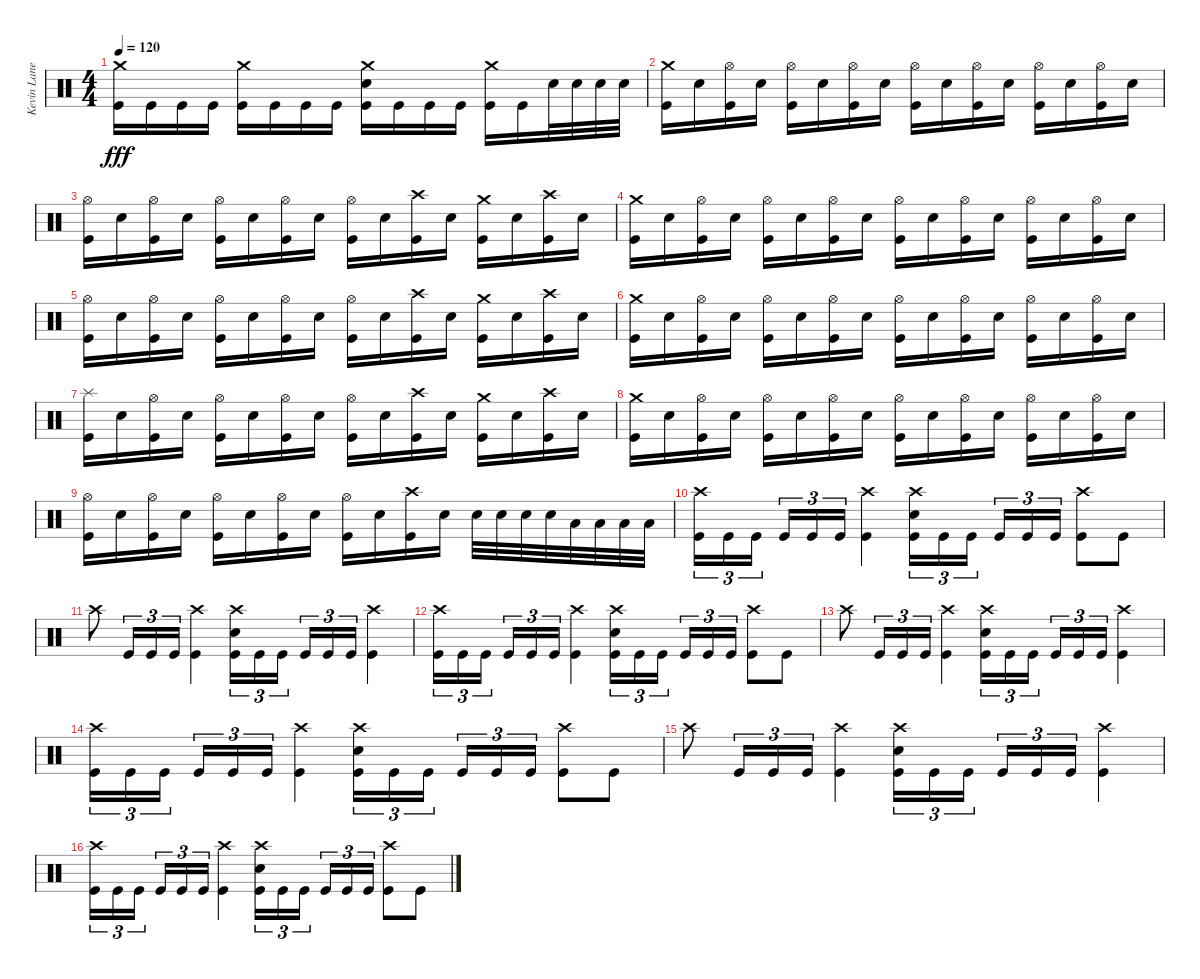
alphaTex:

\track ("Kevin Lane" "Kevin Lane") {instrument percussion}
\staff {score}
\articulation defaults
\ts (4 4)
\tempo 120
\clef neutral
\ks c
("Crash medium (hit)" "Kick (hit)").16{dy fff} "Kick (hit)".16 "Kick (hit)".16 "Kick (hit)".16 ("Crash medium (hit)" "Kick (hit)").16 "Kick (hit)".16 "Kick (hit)".16 "Kick (hit)".16 ("Crash medium (hit)" "Snare (hit) 2" "Kick (hit)").16 "Kick (hit)".16 "Kick (hit)".16 "Kick (hit)".16 ("Crash medium (hit)" "Kick (hit)").16 "Kick (hit)".16 "Snare (hit) 2".32 "Snare (hit) 2".32 "Snare (hit) 2".32 "Snare (hit) 2".32 |
("Crash medium (hit)" "Kick (hit)").16 "Snare (hit) 2".16 ("Hi-Hat (open)" "Kick (hit)").16 "Snare (hit) 2".16 ("Hi-Hat (open)" "Kick (hit)").16 "Snare (hit) 2".16 ("Hi-Hat (open)" "Kick (hit)").16 "Snare (hit) 2".16 ("Hi-Hat (open)" "Kick (hit)").16 "Snare (hit) 2".16 ("Hi-Hat (open)" "Kick (hit)").16 "Snare (hit) 2".16 ("Hi-Hat (open)" "Kick (hit)").16 "Snare (hit) 2".16 ("Hi-Hat (open)" "Kick (hit)").16 "Snare (hit) 2".16 |
("Hi-Hat (open)" "Kick (hit)").16 "Snare (hit) 2".16 ("Hi-Hat (open)" "Kick (hit)").16 "Snare (hit) 2".16 ("Hi-Hat (open)" "Kick (hit)").16 "Snare (hit) 2".16 ("Hi-Hat (open)" "Kick (hit)").16 "Snare (hit) 2".16 ("Hi-Hat (open)" "Kick (hit)").16 "Snare (hit) 2".16 ("Crash high (hit)" "Kick (hit)").16 "Snare (hit) 2".16 ("Crash medium (hit)" "Kick (hit)").16 "Snare (hit) 2".16 ("Crash high (hit)" "Kick (hit)").16 "Snare (hit) 2".16 |
("Crash medium (hit)" "Kick (hit)").16 "Snare (hit) 2".16 ("Hi-Hat (open)" "Kick (hit)").16 "Snare (hit) 2".16 ("Hi-Hat (open)" "Kick (hit)").16 "Snare (hit) 2".16 ("Hi-Hat (open)" "Kick (hit)").16 "Snare (hit) 2".16 ("Hi-Hat (open)" "Kick (hit)").16 "Snare (hit) 2".16 ("Hi-Hat (open)" "Kick (hit)").16 "Snare (hit) 2".16 ("Hi-Hat (open)" "Kick (hit)").16 "Snare (hit) 2".16 ("Hi-Hat (open)" "Kick (hit)").16 "Snare (hit) 2".16 |
("Hi-Hat (open)" "Kick (hit)").16 "Snare (hit) 2".16 ("Hi-Hat (open)" "Kick (hit)").16 "Snare (hit) 2".16 ("Hi-Hat (open)" "Kick (hit)").16 "Snare (hit) 2".16 ("Hi-Hat (open)" "Kick (hit)").16 "Snare (hit) 2".16 ("Hi-Hat (open)" "Kick (hit)").16 "Snare (hit) 2".16 ("Crash high (hit)" "Kick (hit)").16 "Snare (hit) 2".16 ("Crash medium (hit)" "Kick (hit)").16 "Snare (hit) 2".16 ("Crash high (hit)" "Kick (hit)").16 "Snare (hit) 2".16 |
("Crash medium (hit)" "Kick (hit)").16 "Snare (hit) 2".16 ("Hi-Hat (open)" "Kick (hit)").16 "Snare (hit) 2".16 ("Hi-Hat (open)" "Kick (hit)").16 "Snare (hit) 2".16 ("Hi-Hat (open)" "Kick (hit)").16 "Snare (hit) 2".16 ("Hi-Hat (open)" "Kick (hit)").16 "Snare (hit) 2".16 ("Hi-Hat (open)" "Kick (hit)").16 "Snare (hit) 2".16 ("Hi-Hat (open)" "Kick (hit)").16 "Snare (hit) 2".16 ("Hi-Hat (open)" "Kick (hit)").16 "Snare (hit) 2".16 |
("Splash (hit)" "Kick (hit)").16 "Snare (hit) 2".16 ("Hi-Hat (open)" "Kick (hit)").16 "Snare (hit) 2".16 ("Hi-Hat (open)" "Kick (hit)").16 "Snare (hit) 2".16 ("Hi-Hat (open)" "Kick (hit)").16 "Snare (hit) 2".16 ("Hi-Hat (open)" "Kick (hit)").16 "Snare (hit) 2".16 ("Crash high (hit)" "Kick (hit)").16 "Snare (hit) 2".16 ("Crash medium (hit)" "Kick (hit)").16 "Snare (hit) 2".16 ("Crash high (hit)" "Kick (hit)").16 "Snare (hit) 2".16 |
("Crash medium (hit)" "Kick (hit)").16 "Snare (hit) 2".16 ("Hi-Hat (open)" "Kick (hit)").16 "Snare (hit) 2".16 ("Hi-Hat (open)" "Kick (hit)").16 "Snare (hit) 2".16 ("Hi-Hat (open)" "Kick (hit)").16 "Snare (hit) 2".16 ("Hi-Hat (open)" "Kick (hit)").16 "Snare (hit) 2".16 ("Hi-Hat (open)" "Kick (hit)").16 "Snare (hit) 2".16 ("Hi-Hat (open)" "Kick (hit)").16 "Snare (hit) 2".16 ("Hi-Hat (open)" "Kick (hit)").16 "Snare (hit) 2".16 |
("Hi-Hat (open)" "Kick (hit)").16 "Snare (hit) 2".16 ("Hi-Hat (open)" "Kick (hit)").16 "Snare (hit) 2".16 ("Hi-Hat (open)" "Kick (hit)").16 "Snare (hit) 2".16 ("Hi-Hat (open)" "Kick (hit)").16 "Snare (hit) 2".16 ("Hi-Hat (open)" "Kick (hit)").16 "Snare (hit) 2".16 ("Crash high (hit)" "Kick (hit)").16 "Snare (hit) 2".16 "Snare (hit) 2".32 "Snare (hit) 2".32 "Snare (hit) 2".32 "Snare (hit) 2".32 "Low Tom (hit)".32 "Low Tom (hit)".32 "Low Tom (hit)".32 "Low Tom (hit)".32 |
("Crash high (hit)" "Kick (hit)").16{tu (3 2)} "Kick (hit)".16{tu (3 2)} "Kick (hit)".16{tu (3 2) beam splitsecondary} "Kick (hit)".16{tu (3 2)} "Kick (hit)".16{tu (3 2)} "Kick (hit)".16{tu (3 2)} ("Crash high (hit)" "Kick (hit)").4 ("Crash high (hit)" "Snare (hit) 2" "Kick (hit)").16{tu (3 2)} "Kick (hit)".16{tu (3 2)} "Kick (hit)".16{tu (3 2) beam splitsecondary} "Kick (hit)".16{tu (3 2)} "Kick (hit)".16{tu (3 2)} "Kick (hit)".16{tu (3 2)} ("Crash high (hit)" "Kick (hit)").8 "Kick (hit)".8 |
"Crash high (hit)".8 "Kick (hit)".16{tu (3 2)} "Kick (hit)".16{tu (3 2)} "Kick (hit)".16{tu (3 2)} ("Crash high (hit)" "Kick (hit)").4 ("Crash high (hit)" "Snare (hit) 2" "Kick (hit)").16{tu (3 2)} "Kick (hit)".16{tu (3 2)} "Kick (hit)".16{tu (3 2) beam splitsecondary} "Kick (hit)".16{tu (3 2)} "Kick (hit)".16{tu (3 2)} "Kick (hit)".16{tu (3 2)} ("Crash high (hit)" "Kick (hit)").4 |
("Crash high (hit)" "Kick (hit)").16{tu (3 2)} "Kick (hit)".16{tu (3 2)} "Kick (hit)".16{tu (3 2) beam splitsecondary} "Kick (hit)".16{tu (3 2)} "Kick (hit)".16{tu (3 2)} "Kick (hit)".16{tu (3 2)} ("Crash high (hit)" "Kick (hit)").4 ("Crash high (hit)" "Snare (hit) 2" "Kick (hit)").16{tu (3 2)} "Kick (hit)".16{tu (3 2)} "Kick (hit)".16{tu (3 2) beam splitsecondary} "Kick (hit)".16{tu (3 2)} "Kick (hit)".16{tu (3 2)} "Kick (hit)".16{tu (3 2)} ("Crash high (hit)" "Kick (hit)").8 "Kick (hit)".8 |
"Crash high (hit)".8 "Kick (hit)".16{tu (3 2)} "Kick (hit)".16{tu (3 2)} "Kick (hit)".16{tu (3 2)} ("Crash high (hit)" "Kick (hit)").4 ("Crash high (hit)" "Snare (hit) 2" "Kick (hit)").16{tu (3 2)} "Kick (hit)".16{tu (3 2)} "Kick (hit)".16{tu (3 2) beam splitsecondary} "Kick (hit)".16{tu (3 2)} "Kick (hit)".16{tu (3 2)} "Kick (hit)".16{tu (3 2)} ("Crash high (hit)" "Kick (hit)").4 |
("Crash high (hit)" "Kick (hit)").16{tu (3 2)} "Kick (hit)".16{tu (3 2)} "Kick (hit)".16{tu (3 2) beam splitsecondary} "Kick (hit)".16{tu (3 2)} "Kick (hit)".16{tu (3 2)} "Kick (hit)".16{tu (3 2)} ("Crash high (hit)" "Kick (hit)").4 ("Crash high (hit)" "Snare (hit) 2" "Kick (hit)").16{tu (3 2)} "Kick (hit)".16{tu (3 2)} "Kick (hit)".16{tu (3 2) beam splitsecondary} "Kick (hit)".16{tu (3 2)} "Kick (hit)".16{tu (3 2)} "Kick (hit)".16{tu (3 2)} ("Crash high (hit)" "Kick (hit)").8 "Kick (hit)".8 |
"Crash high (hit)".8 "Kick (hit)".16{tu (3 2)} "Kick (hit)".16{tu (3 2)} "Kick (hit)".16{tu (3 2)} ("Crash high (hit)" "Kick (hit)").4 ("Crash high (hit)" "Snare (hit) 2" "Kick (hit)").16{tu (3 2)} "Kick (hit)".16{tu (3 2)} "Kick (hit)".16{tu (3 2) beam splitsecondary} "Kick (hit)".16{tu (3 2)} "Kick (hit)".16{tu (3 2)} "Kick (hit)".16{tu (3 2)} ("Crash high (hit)" "Kick (hit)").4 |
("Crash high (hit)" "Kick (hit)").16{tu (3 2)} "Kick (hit)".16{tu (3 2)} "Kick (hit)".16{tu (3 2) beam splitsecondary} "Kick (hit)".16{tu (3 2)} "Kick (hit)".16{tu (3 2)} "Kick (hit)".16{tu (3 2)} ("Crash high (hit)" "Kick (hit)").4 ("Crash high (hit)" "Snare (hit) 2" "Kick (hit)").16{tu (3 2)} "Kick (hit)".16{tu (3 2)} "Kick (hit)".16{tu (3 2) beam splitsecondary} "Kick (hit)".16{tu (3 2)} "Kick (hit)".16{tu (3 2)} "Kick (hit)".16{tu (3 2)} ("Crash high (hit)" "Kick (hit)").8 "Kick (hit)".8
